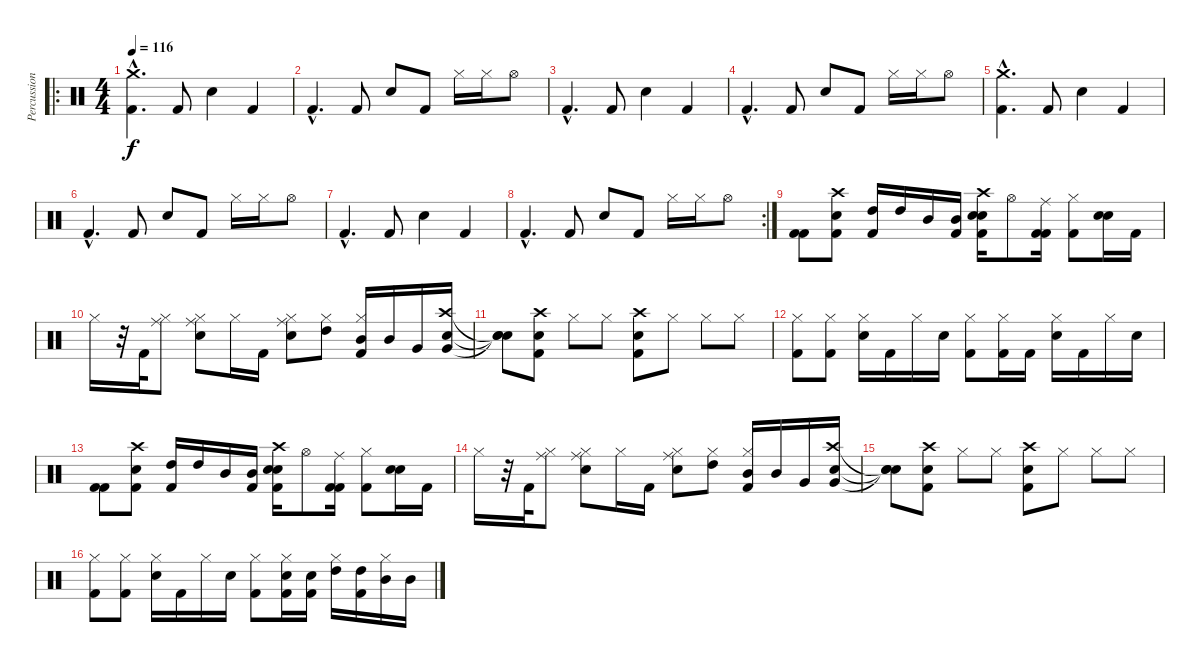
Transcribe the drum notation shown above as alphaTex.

\track ("Percussion" "Percussion") {instrument percussion}
\staff {score}
\articulation defaults
\ro
\ts (4 4)
\tempo 116
\clef neutral
\ks c
("Crash medium (hit)"{hac} "Kick (hit) 2"{hac}).4{d dy f} "Kick (hit) 2".8 "Snare (hit) 2".4 "Kick (hit) 2".4 |
"Kick (hit) 2"{hac}.4{d} "Kick (hit) 2".8 "Snare (hit) 2".8 "Kick (hit) 2".8 "Hi-Hat (closed)".16 "Hi-Hat (closed)".16 "Hi-Hat (open)".8 |
"Kick (hit) 2"{hac}.4{d} "Kick (hit) 2".8 "Snare (hit) 2".4 "Kick (hit) 2".4 |
"Kick (hit) 2"{hac}.4{d} "Kick (hit) 2".8 "Snare (hit) 2".8 "Kick (hit) 2".8 "Hi-Hat (closed)".16 "Hi-Hat (closed)".16 "Hi-Hat (open)".8 |
("Crash medium (hit)"{hac} "Kick (hit) 2"{hac}).4{d} "Kick (hit) 2".8 "Snare (hit) 2".4 "Kick (hit) 2".4 |
"Kick (hit) 2"{hac}.4{d} "Kick (hit) 2".8 "Snare (hit) 2".8 "Kick (hit) 2".8 "Hi-Hat (closed)".16 "Hi-Hat (closed)".16 "Hi-Hat (open)".8 |
"Kick (hit) 2"{hac}.4{d} "Kick (hit) 2".8 "Snare (hit) 2".4 "Kick (hit) 2".4 |
\rc 2 "Kick (hit) 2"{hac}.4{d} "Kick (hit) 2".8 "Snare (hit) 2".8 "Kick (hit) 2".8 "Hi-Hat (closed)".16 "Hi-Hat (closed)".16 "Hi-Hat (open)".8
|
("Kick (hit) 2" "Kick (hit) 2").8 ("Crash high (hit)" "Snare (hit) 2" "Kick (hit) 2").8 ("High Tom (hit)" "Kick (hit) 2").16 "High Tom (hit)".16 "Mid Tom (hit)".16 ("Mid Tom (hit)" "Kick (hit) 2").16 ("Crash high (hit)" "Snare (hit) 2" "Snare (hit) 2" "Kick (hit) 2").16 "Hi-Hat (open)".8 ("Ride (middle)" "Kick (hit) 2" "Kick (hit) 2").16 ("Hi-Hat (closed)" "Kick (hit) 2").8 ("Snare (hit) 2" "Snare (hit) 2").16 "Kick (hit) 2".16 |
"Hi-Hat (closed)".16 r.32 "Kick (hit) 2".32 ("Hi-Hat (closed)" "Ride (middle)").8 ("Hi-Hat (closed)" "Ride (middle)" "Snare (hit) 2").8 "Hi-Hat (closed)".16 "Kick (hit) 2".16 ("Hi-Hat (closed)" "Ride (middle)" "Snare (hit) 2").8 ("Hi-Hat (closed)" "High Tom (hit)").8 ("Hi-Hat (closed)" "Mid Tom (hit)" "Kick (hit) 2").16 "Mid Tom (hit)".16 "Very Low Tom (hit)".16 ("Crash high (hit)" "Snare (hit) 2" "Very Low Tom (hit)").16 |
("Snare (hit)"{t} "Snare (hit)"{t} "Snare (hit)"{t}).8 ("Crash high (hit)" "Snare (hit) 2" "Kick (hit) 2").8 "Hi-Hat (closed)".8 "Hi-Hat (closed)".8 ("Crash high (hit)" "Snare (hit) 2" "Kick (hit) 2").8 "Hi-Hat (closed)".8 "Hi-Hat (closed)".8 "Hi-Hat (closed)".8 |
("Hi-Hat (closed)" "Kick (hit) 2").8 ("Hi-Hat (closed)" "Kick (hit) 2").8 ("Hi-Hat (closed)" "Snare (hit) 2").16 "Kick (hit) 2".16 "Hi-Hat (closed)".16 "Snare (hit) 2".16 ("Hi-Hat (closed)" "Kick (hit) 2").8 ("Hi-Hat (closed)" "Kick (hit) 2").16 "Kick (hit) 2".16 ("Hi-Hat (closed)" "Snare (hit) 2").16 "Kick (hit) 2".16 "Hi-Hat (closed)".16 "Snare (hit) 2".16 |
("Kick (hit) 2" "Kick (hit) 2").8 ("Crash high (hit)" "Snare (hit) 2" "Kick (hit) 2").8 ("High Tom (hit)" "Kick (hit) 2").16 "High Tom (hit)".16 "Mid Tom (hit)".16 ("Mid Tom (hit)" "Kick (hit) 2").16 ("Crash high (hit)" "Snare (hit) 2" "Snare (hit) 2" "Kick (hit) 2").16 "Hi-Hat (open)".8 ("Ride (middle)" "Kick (hit) 2" "Kick (hit) 2").16 ("Hi-Hat (closed)" "Kick (hit) 2").8 ("Snare (hit) 2" "Snare (hit) 2").16 "Kick (hit) 2".16 |
"Hi-Hat (closed)".16 r.32 "Kick (hit) 2".32 ("Hi-Hat (closed)" "Ride (middle)").8 ("Hi-Hat (closed)" "Ride (middle)" "Snare (hit) 2").8 "Hi-Hat (closed)".16 "Kick (hit) 2".16 ("Hi-Hat (closed)" "Ride (middle)" "Snare (hit) 2").8 ("Hi-Hat (closed)" "High Tom (hit)").8 ("Hi-Hat (closed)" "Mid Tom (hit)" "Kick (hit) 2").16 "Mid Tom (hit)".16 "Very Low Tom (hit)".16 ("Crash high (hit)" "Snare (hit) 2" "Very Low Tom (hit)").16 |
("Snare (hit)"{t} "Snare (hit)"{t} "Snare (hit)"{t}).8 ("Crash high (hit)" "Snare (hit) 2" "Kick (hit) 2").8 "Hi-Hat (closed)".8 "Hi-Hat (closed)".8 ("Crash high (hit)" "Snare (hit) 2" "Kick (hit) 2").8 "Hi-Hat (closed)".8 "Hi-Hat (closed)".8 "Hi-Hat (closed)".8 |
("Hi-Hat (closed)" "Kick (hit) 2").8 ("Hi-Hat (closed)" "Kick (hit) 2").8 ("Hi-Hat (closed)" "Snare (hit) 2").16 "Kick (hit) 2".16 "Hi-Hat (closed)".16 "Snare (hit) 2".16 ("Hi-Hat (closed)" "Kick (hit) 2").8 ("Hi-Hat (closed)" "Snare (hit) 2" "Kick (hit) 2").16 ("Snare (hit) 2" "Kick (hit) 2").16 ("Hi-Hat (closed)" "High Tom (hit)").16 ("High Tom (hit)" "Kick (hit) 2").16 ("Hi-Hat (closed)" "Mid Tom (hit)").16 "Mid Tom (hit)".16
